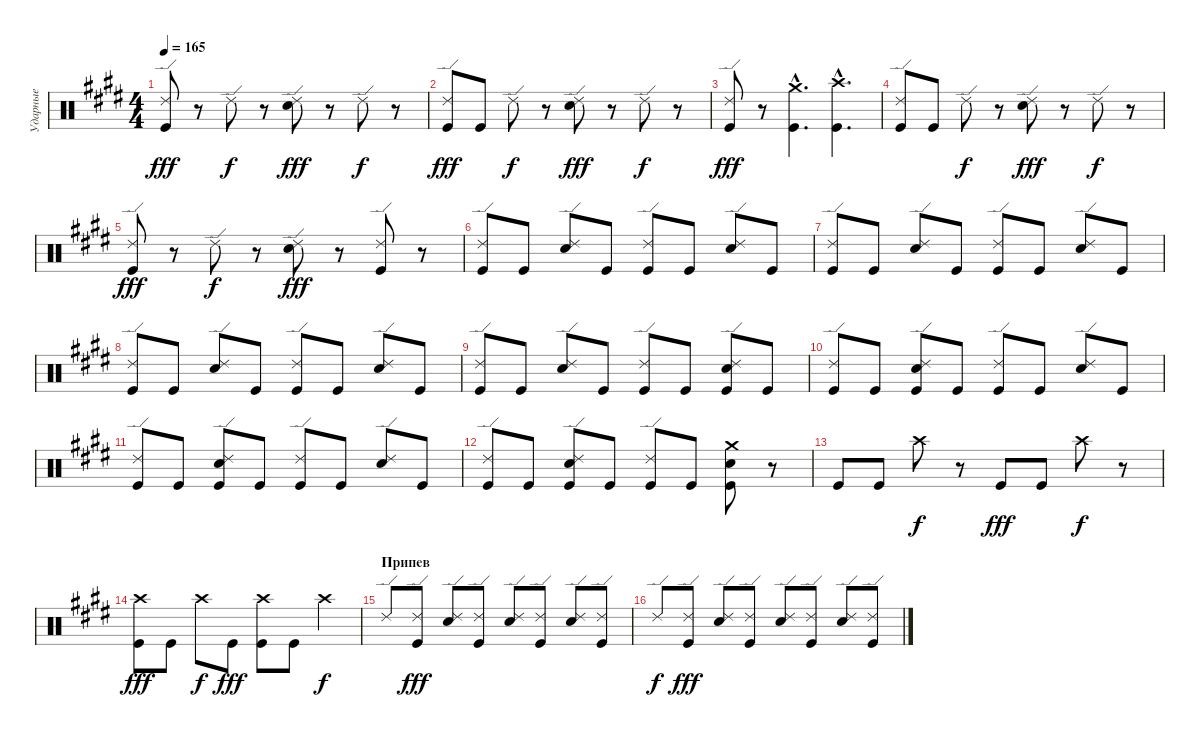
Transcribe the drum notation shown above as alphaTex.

\track ("Ударные" "Ударные") {instrument percussion}
\staff {score}
\articulation defaults
\ts (4 4)
\tempo 165
\clef neutral
\ks e
("Ride (edge) 2" "Kick (hit)").8{dy fff} r.8 "Ride (edge) 2".8{dy f} r.8 ("Ride (edge) 2" "Snare (hit) 2").8{dy fff} r.8 "Ride (edge) 2".8{dy f} r.8 |
("Ride (edge) 2" "Kick (hit)").8{dy fff} "Kick (hit)".8 "Ride (edge) 2".8{dy f} r.8 ("Ride (edge) 2" "Snare (hit) 2").8{dy fff} r.8 "Ride (edge) 2".8{dy f} r.8 |
("Ride (edge) 2" "Kick (hit)").8{dy fff} r.8 ("Crash medium (hit)"{hac} "Kick (hit)"{hac}).4{d} ("Crash high (hit)"{hac} "Kick (hit)"{hac}).4{d} |
("Ride (edge) 2" "Kick (hit)").8 "Kick (hit)".8 "Ride (edge) 2".8{dy f} r.8 ("Ride (edge) 2" "Snare (hit) 2").8{dy fff} r.8 "Ride (edge) 2".8{dy f} r.8 |
("Ride (edge) 2" "Kick (hit)").8{dy fff} r.8 "Ride (edge) 2".8{dy f} r.8 ("Ride (edge) 2" "Snare (hit) 2").8{dy fff} r.8 ("Ride (edge) 2" "Kick (hit)").8 r.8 |
("Ride (edge) 2" "Kick (hit)").8 "Kick (hit)".8 ("Ride (edge) 2" "Snare (hit) 2").8 "Kick (hit)".8 ("Ride (edge) 2" "Kick (hit)").8 "Kick (hit)".8 ("Ride (edge) 2" "Snare (hit) 2").8 "Kick (hit)".8 |
("Ride (edge) 2" "Kick (hit)").8 "Kick (hit)".8 ("Ride (edge) 2" "Snare (hit) 2").8 "Kick (hit)".8 ("Ride (edge) 2" "Kick (hit)").8 "Kick (hit)".8 ("Ride (edge) 2" "Snare (hit) 2").8 "Kick (hit)".8 |
("Ride (edge) 2" "Kick (hit)").8 "Kick (hit)".8 ("Ride (edge) 2" "Snare (hit) 2").8 "Kick (hit)".8 ("Ride (edge) 2" "Kick (hit)").8 "Kick (hit)".8 ("Ride (edge) 2" "Snare (hit) 2").8 "Kick (hit)".8 |
("Ride (edge) 2" "Kick (hit)").8 "Kick (hit)".8 ("Ride (edge) 2" "Snare (hit) 2").8 "Kick (hit)".8 ("Ride (edge) 2" "Kick (hit)").8 "Kick (hit)".8 ("Ride (edge) 2" "Snare (hit) 2" "Kick (hit)").8 "Kick (hit)".8 |
("Ride (edge) 2" "Kick (hit)").8 "Kick (hit)".8 ("Ride (edge) 2" "Snare (hit) 2" "Kick (hit)").8 "Kick (hit)".8 ("Ride (edge) 2" "Kick (hit)").8 "Kick (hit)".8 ("Ride (edge) 2" "Snare (hit) 2").8 "Kick (hit)".8 |
("Ride (edge) 2" "Kick (hit)").8 "Kick (hit)".8 ("Ride (edge) 2" "Snare (hit) 2" "Kick (hit)").8 "Kick (hit)".8 ("Ride (edge) 2" "Kick (hit)").8 "Kick (hit)".8 ("Ride (edge) 2" "Snare (hit) 2").8 "Kick (hit)".8 |
("Ride (edge) 2" "Kick (hit)").8 "Kick (hit)".8 ("Ride (edge) 2" "Snare (hit) 2" "Kick (hit)").8 "Kick (hit)".8 ("Ride (edge) 2" "Kick (hit)").8 "Kick (hit)".8 ("Crash medium (hit)" "Snare (hit) 2" "Kick (hit)").8 r.8 |
"Kick (hit)".8 "Kick (hit)".8 "Crash high (hit)".8{dy f} r.8 "Kick (hit)".8{dy fff} "Kick (hit)".8 "Crash high (hit)".8{dy f} r.8 |
("Crash high (hit)" "Kick (hit)").8{dy fff} "Kick (hit)".8 "Crash high (hit)".8{dy f} "Kick (hit)".8{dy fff} ("Crash high (hit)" "Kick (hit)").8 "Kick (hit)".8 "Crash high (hit)".4{dy f} |
\section ("" "Припев")
"Ride (edge) 2".8 ("Ride (edge) 2" "Kick (hit)").8{dy fff} ("Ride (edge) 2" "Snare (hit) 2").8 ("Ride (edge) 2" "Kick (hit)").8 ("Ride (edge) 2" "Snare (hit) 2").8 ("Ride (edge) 2" "Kick (hit)").8 ("Ride (edge) 2" "Snare (hit) 2").8 ("Ride (edge) 2" "Kick (hit)").8 |
"Ride (edge) 2".8{dy f} ("Ride (edge) 2" "Kick (hit)").8{dy fff} ("Ride (edge) 2" "Snare (hit) 2").8 ("Ride (edge) 2" "Kick (hit)").8 ("Ride (edge) 2" "Snare (hit) 2").8 ("Ride (edge) 2" "Kick (hit)").8 ("Ride (edge) 2" "Snare (hit) 2").8 ("Ride (edge) 2" "Kick (hit)").8
